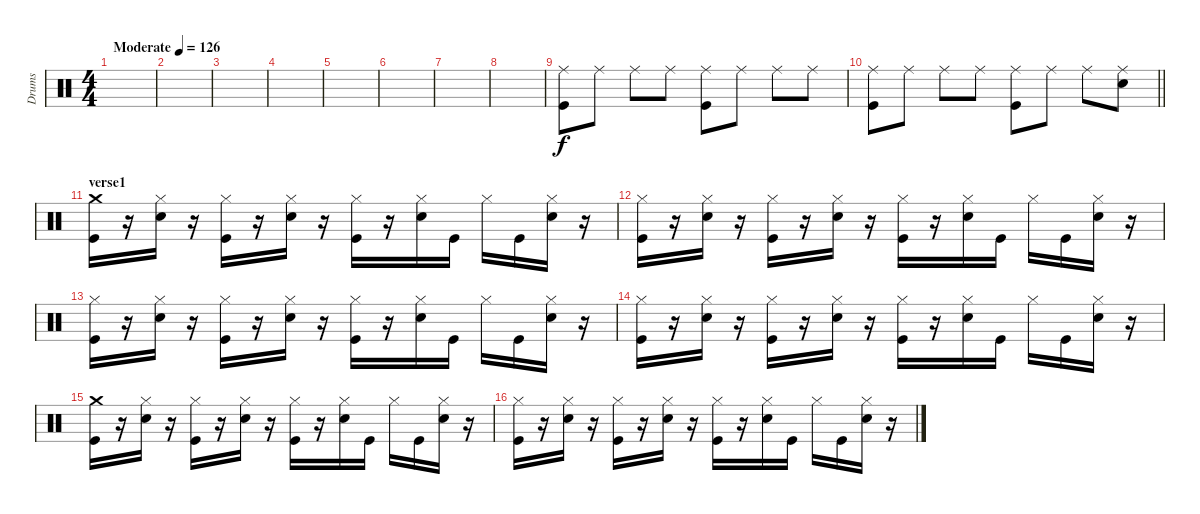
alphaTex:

\track ("Drums" "Drums") {instrument percussion}
\staff {score}
\articulation defaults
\ts (4 4)
\tempo (126 "Moderate")
\clef neutral
\ks c
|
|
|
|
|
|
|
|
("Ride (middle)" "Kick (hit)").8 "Ride (middle)".8 "Ride (middle)".8 "Ride (middle)".8 ("Ride (middle)" "Kick (hit)").8 "Ride (middle)".8 "Ride (middle)".8 "Ride (middle)".8 |
\barLineRight lightlight
("Ride (middle)" "Kick (hit)").8 "Ride (middle)".8 "Ride (middle)".8 "Ride (middle)".8 ("Ride (middle)" "Kick (hit)").8 "Ride (middle)".8 "Ride (middle)".8 ("Ride (middle)" "Snare (hit) 2").8 |
\section ("" "verse1")
("Crash medium (hit)" "Kick (hit)").16 r.16 ("Hi-Hat (closed)" "Snare (hit) 2").16 r.16 ("Hi-Hat (closed)" "Kick (hit)").16 r.16 ("Hi-Hat (closed)" "Snare (hit) 2").16 r.16 ("Hi-Hat (closed)" "Kick (hit)").16 r.16 ("Hi-Hat (closed)" "Snare (hit) 2").16 "Kick (hit)".16 "Hi-Hat (closed)".16 "Kick (hit)".16 ("Hi-Hat (closed)" "Snare (hit) 2").16 r.16 |
("Hi-Hat (closed)" "Kick (hit)").16 r.16 ("Hi-Hat (closed)" "Snare (hit) 2").16 r.16 ("Hi-Hat (closed)" "Kick (hit)").16 r.16 ("Hi-Hat (closed)" "Snare (hit) 2").16 r.16 ("Hi-Hat (closed)" "Kick (hit)").16 r.16 ("Hi-Hat (closed)" "Snare (hit) 2").16 "Kick (hit)".16 "Hi-Hat (closed)".16 "Kick (hit)".16 ("Hi-Hat (closed)" "Snare (hit) 2").16 r.16 |
("Hi-Hat (closed)" "Kick (hit)").16 r.16 ("Hi-Hat (closed)" "Snare (hit) 2").16 r.16 ("Hi-Hat (closed)" "Kick (hit)").16 r.16 ("Hi-Hat (closed)" "Snare (hit) 2").16 r.16 ("Hi-Hat (closed)" "Kick (hit)").16 r.16 ("Hi-Hat (closed)" "Snare (hit) 2").16 "Kick (hit)".16 "Hi-Hat (closed)".16 "Kick (hit)".16 ("Hi-Hat (closed)" "Snare (hit) 2").16 r.16 |
("Hi-Hat (closed)" "Kick (hit)").16 r.16 ("Hi-Hat (closed)" "Snare (hit) 2").16 r.16 ("Hi-Hat (closed)" "Kick (hit)").16 r.16 ("Hi-Hat (closed)" "Snare (hit) 2").16 r.16 ("Hi-Hat (closed)" "Kick (hit)").16 r.16 ("Hi-Hat (closed)" "Snare (hit) 2").16 "Kick (hit)".16 "Hi-Hat (closed)".16 "Kick (hit)".16 ("Hi-Hat (closed)" "Snare (hit) 2").16 r.16 |
("Crash medium (hit)" "Kick (hit)").16 r.16 ("Hi-Hat (closed)" "Snare (hit) 2").16 r.16 ("Hi-Hat (closed)" "Kick (hit)").16 r.16 ("Hi-Hat (closed)" "Snare (hit) 2").16 r.16 ("Hi-Hat (closed)" "Kick (hit)").16 r.16 ("Hi-Hat (closed)" "Snare (hit) 2").16 "Kick (hit)".16 "Hi-Hat (closed)".16 "Kick (hit)".16 ("Hi-Hat (closed)" "Snare (hit) 2").16 r.16 |
("Hi-Hat (closed)" "Kick (hit)").16 r.16 ("Hi-Hat (closed)" "Snare (hit) 2").16 r.16 ("Hi-Hat (closed)" "Kick (hit)").16 r.16 ("Hi-Hat (closed)" "Snare (hit) 2").16 r.16 ("Hi-Hat (closed)" "Kick (hit)").16 r.16 ("Hi-Hat (closed)" "Snare (hit) 2").16 "Kick (hit)".16 "Hi-Hat (closed)".16 "Kick (hit)".16 ("Hi-Hat (closed)" "Snare (hit) 2").16 r.16
